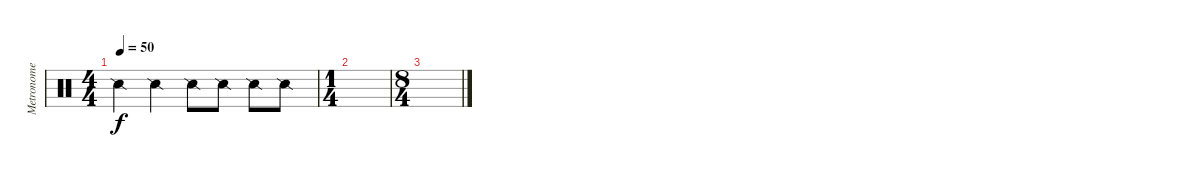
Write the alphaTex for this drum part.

\track ("Metronome" "Metronome") {instrument percussion}
\staff {score}
\articulation defaults
\ts (4 4)
\tempo 50
\clef neutral
\ks c "Snare (side stick) 2".4{dy f} "Snare (side stick) 2".4 "Snare (side stick) 2".8 "Snare (side stick) 2".8 "Snare (side stick) 2".8 "Snare (side stick) 2".8
|
\ts (1 4)
|
\ts (8 4)
